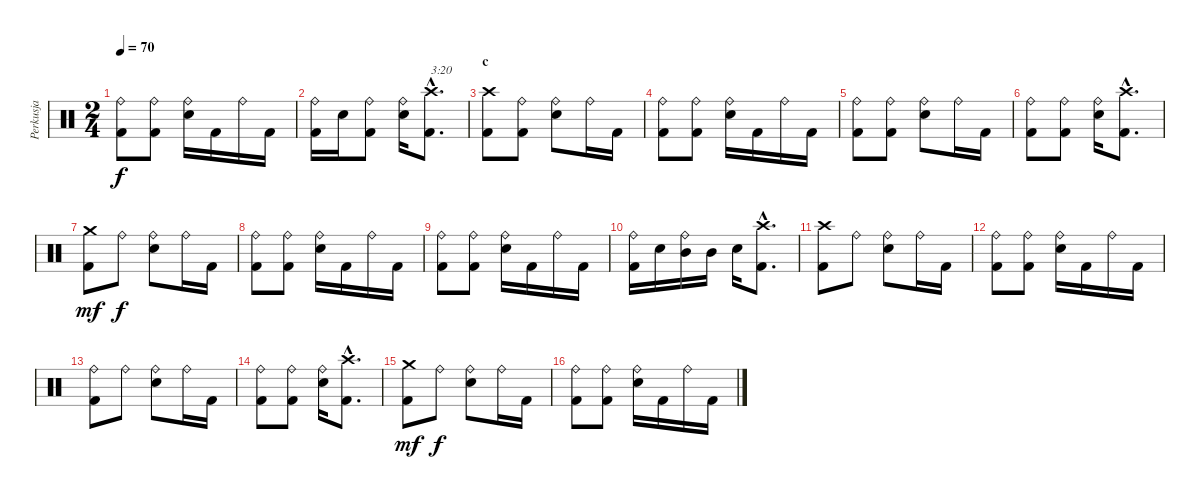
\track ("Perkusja" "Perkusja") {instrument percussion}
\staff {score}
\articulation defaults
\ts (2 4)
\tempo 70
\clef neutral
\ks c
("Ride (bell)" "Kick (hit) 2").8{dy f} ("Ride (bell)" "Kick (hit) 2").8 ("Ride (bell)" "Snare (hit) 2").16 "Kick (hit) 2".16 "Ride (bell)".16 "Kick (hit) 2".16 |
("Ride (bell)" "Kick (hit) 2").16 "Snare (hit) 2".16 ("Ride (bell)" "Kick (hit) 2").8 ("Ride (bell)" "Snare (hit) 2").16 ("Crash high (hit)"{hac} "Kick (hit) 2"{hac}).8{d txt "3:20"} |
\section ("" "c")
("Crash high (hit)" "Kick (hit) 2").8 ("Ride (bell)" "Kick (hit) 2").8 ("Ride (bell)" "Snare (hit) 2").8 "Ride (bell)".16 "Kick (hit) 2".16 |
("Ride (bell)" "Kick (hit) 2").8 ("Ride (bell)" "Kick (hit) 2").8 ("Ride (bell)" "Snare (hit) 2").16 "Kick (hit) 2".16 "Ride (bell)".16 "Kick (hit) 2".16 |
("Ride (bell)" "Kick (hit) 2").8 ("Ride (bell)" "Kick (hit) 2").8 ("Ride (bell)" "Snare (hit) 2").8 "Ride (bell)".16 "Kick (hit) 2".16 |
("Ride (bell)" "Kick (hit) 2").8 ("Ride (bell)" "Kick (hit) 2").8 ("Ride (bell)" "Snare (hit) 2").16 ("Crash high (hit)"{hac} "Kick (hit) 2"{hac}).8{d} |
("Crash medium (hit)" "Kick (hit) 2").8{dy mf} "Ride (bell)".8{dy f} ("Ride (bell)" "Snare (hit) 2").8 "Ride (bell)".16 "Kick (hit) 2".16 |
("Ride (bell)" "Kick (hit) 2").8 ("Ride (bell)" "Kick (hit) 2").8 ("Ride (bell)" "Snare (hit) 2").16 "Kick (hit) 2".16 "Ride (bell)".16 "Kick (hit) 2".16 |
("Ride (bell)" "Kick (hit) 2").8 ("Ride (bell)" "Kick (hit) 2").8 ("Ride (bell)" "Snare (hit) 2").16 "Kick (hit) 2".16 "Ride (bell)".16 "Kick (hit) 2".16 |
("Ride (bell)" "Kick (hit) 2").16 "Snare (hit) 2".16 ("Ride (bell)" "Mid Tom (hit)").16 "Mid Tom (hit)".16 "Snare (hit) 2".16 ("Crash high (hit)"{hac} "Kick (hit) 2"{hac}).8{d} |
("Crash high (hit)" "Kick (hit) 2").8 "Ride (bell)".8 ("Ride (bell)" "Snare (hit) 2").8 "Ride (bell)".16 "Kick (hit) 2".16 |
("Ride (bell)" "Kick (hit) 2").8 ("Ride (bell)" "Kick (hit) 2").8 ("Ride (bell)" "Snare (hit) 2").16 "Kick (hit) 2".16 "Ride (bell)".16 "Kick (hit) 2".16 |
("Ride (bell)" "Kick (hit) 2").8 "Ride (bell)".8 ("Ride (bell)" "Snare (hit) 2").8 "Ride (bell)".16 "Kick (hit) 2".16 |
("Ride (bell)" "Kick (hit) 2").8 ("Ride (bell)" "Kick (hit) 2").8 ("Ride (bell)" "Snare (hit) 2").16 ("Crash high (hit)"{hac} "Kick (hit) 2"{hac}).8{d} |
("Crash medium (hit)" "Kick (hit) 2").8{dy mf} "Ride (bell)".8{dy f} ("Ride (bell)" "Snare (hit) 2").8 "Ride (bell)".16 "Kick (hit) 2".16 |
("Ride (bell)" "Kick (hit) 2").8 ("Ride (bell)" "Kick (hit) 2").8 ("Ride (bell)" "Snare (hit) 2").16 "Kick (hit) 2".16 "Ride (bell)".16 "Kick (hit) 2".16
